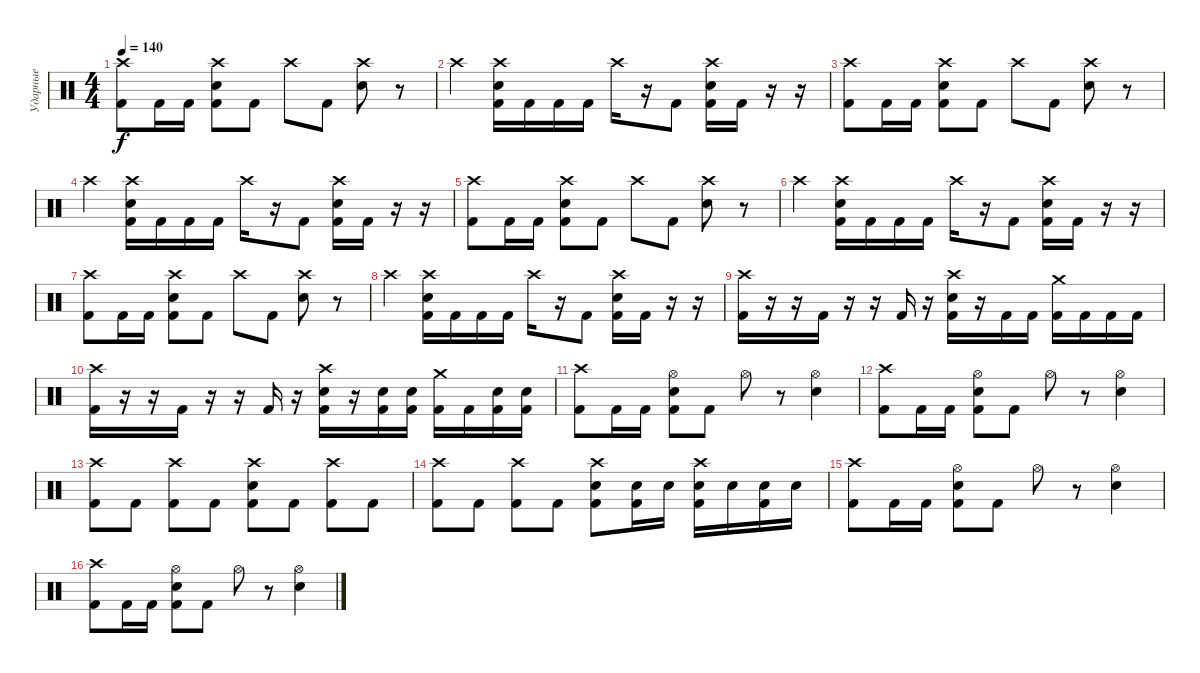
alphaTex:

\track ("Ударные" "Ударные") {instrument percussion}
\staff {score}
\articulation defaults
\ts (4 4)
\tempo 140
\clef neutral
\ks c
("Crash high (hit)" "Kick (hit) 2").8{dy f} "Kick (hit) 2".16 "Kick (hit) 2".16 ("Crash high (hit)" "Electric Snare (hit)" "Kick (hit) 2").8 "Kick (hit) 2".8 "Crash high (hit)".8 "Kick (hit) 2".8 ("Crash high (hit)" "Electric Snare (hit)").8 r.8 |
"Crash high (hit)".4 ("Crash high (hit)" "Electric Snare (hit)" "Kick (hit) 2").16 "Kick (hit) 2".16 "Kick (hit) 2".16 "Kick (hit) 2".16 "Crash high (hit)".16 r.16 "Kick (hit) 2".8 ("Crash high (hit)" "Electric Snare (hit)" "Kick (hit) 2").16 "Kick (hit) 2".16 r.16 r.16 |
("Crash high (hit)" "Kick (hit) 2").8 "Kick (hit) 2".16 "Kick (hit) 2".16 ("Crash high (hit)" "Electric Snare (hit)" "Kick (hit) 2").8 "Kick (hit) 2".8 "Crash high (hit)".8 "Kick (hit) 2".8 ("Crash high (hit)" "Electric Snare (hit)").8 r.8 |
"Crash high (hit)".4 ("Crash high (hit)" "Electric Snare (hit)" "Kick (hit) 2").16 "Kick (hit) 2".16 "Kick (hit) 2".16 "Kick (hit) 2".16 "Crash high (hit)".16 r.16 "Kick (hit) 2".8 ("Crash high (hit)" "Electric Snare (hit)" "Kick (hit) 2").16 "Kick (hit) 2".16 r.16 r.16 |
("Crash high (hit)" "Kick (hit) 2").8 "Kick (hit) 2".16 "Kick (hit) 2".16 ("Crash high (hit)" "Electric Snare (hit)" "Kick (hit) 2").8 "Kick (hit) 2".8 "Crash high (hit)".8 "Kick (hit) 2".8 ("Crash high (hit)" "Electric Snare (hit)").8 r.8 |
"Crash high (hit)".4 ("Crash high (hit)" "Electric Snare (hit)" "Kick (hit) 2").16 "Kick (hit) 2".16 "Kick (hit) 2".16 "Kick (hit) 2".16 "Crash high (hit)".16 r.16 "Kick (hit) 2".8 ("Crash high (hit)" "Electric Snare (hit)" "Kick (hit) 2").16 "Kick (hit) 2".16 r.16 r.16 |
("Crash high (hit)" "Kick (hit) 2").8 "Kick (hit) 2".16 "Kick (hit) 2".16 ("Crash high (hit)" "Electric Snare (hit)" "Kick (hit) 2").8 "Kick (hit) 2".8 "Crash high (hit)".8 "Kick (hit) 2".8 ("Crash high (hit)" "Electric Snare (hit)").8 r.8 |
"Crash high (hit)".4 ("Crash high (hit)" "Electric Snare (hit)" "Kick (hit) 2").16 "Kick (hit) 2".16 "Kick (hit) 2".16 "Kick (hit) 2".16 "Crash high (hit)".16 r.16 "Kick (hit) 2".8 ("Crash high (hit)" "Electric Snare (hit)" "Kick (hit) 2").16 "Kick (hit) 2".16 r.16 r.16 |
("Crash high (hit)" "Kick (hit) 2").16 r.16 r.16 "Kick (hit) 2".16 r.16 r.16 "Kick (hit) 2".16 r.16 ("Crash high (hit)" "Electric Snare (hit)" "Kick (hit) 2").16 r.16 "Kick (hit) 2".16 "Kick (hit) 2".16 ("Crash medium (hit)" "Kick (hit) 2").16 "Kick (hit) 2".16 "Kick (hit) 2".16 "Kick (hit) 2".16 |
("Crash high (hit)" "Kick (hit) 2").16 r.16 r.16 "Kick (hit) 2".16 r.16 r.16 "Kick (hit) 2".16 r.16 ("Crash high (hit)" "Electric Snare (hit)" "Kick (hit) 2").16 r.16 ("Electric Snare (hit)" "Kick (hit) 2").16 ("Electric Snare (hit)" "Kick (hit) 2").16 ("Crash medium (hit)" "Kick (hit) 2").16 "Kick (hit) 2".16 ("Electric Snare (hit)" "Kick (hit) 2").16 ("Electric Snare (hit)" "Kick (hit) 2").16 |
("Crash high (hit)" "Kick (hit) 2").8 "Kick (hit) 2".16 "Kick (hit) 2".16 ("Hi-Hat (open)" "Electric Snare (hit)" "Kick (hit) 2").8 "Kick (hit) 2".8 "Hi-Hat (open)".8 r.8 ("Hi-Hat (open)" "Electric Snare (hit)").4 |
("Crash high (hit)" "Kick (hit) 2").8 "Kick (hit) 2".16 "Kick (hit) 2".16 ("Hi-Hat (open)" "Electric Snare (hit)" "Kick (hit) 2").8 "Kick (hit) 2".8 "Hi-Hat (open)".8 r.8 ("Hi-Hat (open)" "Electric Snare (hit)").4 |
("Crash high (hit)" "Kick (hit) 2").8 "Kick (hit) 2".8 ("Crash high (hit)" "Kick (hit) 2").8 "Kick (hit) 2".8 ("Crash high (hit)" "Electric Snare (hit)" "Kick (hit) 2").8 "Kick (hit) 2".8 ("Crash high (hit)" "Kick (hit) 2").8 "Kick (hit) 2".8 |
("Crash high (hit)" "Kick (hit) 2").8 "Kick (hit) 2".8 ("Crash high (hit)" "Kick (hit) 2").8 "Kick (hit) 2".8 ("Crash high (hit)" "Electric Snare (hit)" "Kick (hit) 2").8 ("Electric Snare (hit)" "Kick (hit) 2").16 "Electric Snare (hit)".16 ("Crash high (hit)" "Electric Snare (hit)" "Kick (hit) 2").16 "Electric Snare (hit)".16 ("Electric Snare (hit)" "Kick (hit) 2").16 "Electric Snare (hit)".16 |
("Crash high (hit)" "Kick (hit) 2").8 "Kick (hit) 2".16 "Kick (hit) 2".16 ("Hi-Hat (open)" "Electric Snare (hit)" "Kick (hit) 2").8 "Kick (hit) 2".8 "Hi-Hat (open)".8 r.8 ("Hi-Hat (open)" "Electric Snare (hit)").4 |
("Crash high (hit)" "Kick (hit) 2").8 "Kick (hit) 2".16 "Kick (hit) 2".16 ("Hi-Hat (open)" "Electric Snare (hit)" "Kick (hit) 2").8 "Kick (hit) 2".8 "Hi-Hat (open)".8 r.8 ("Hi-Hat (open)" "Electric Snare (hit)").4
